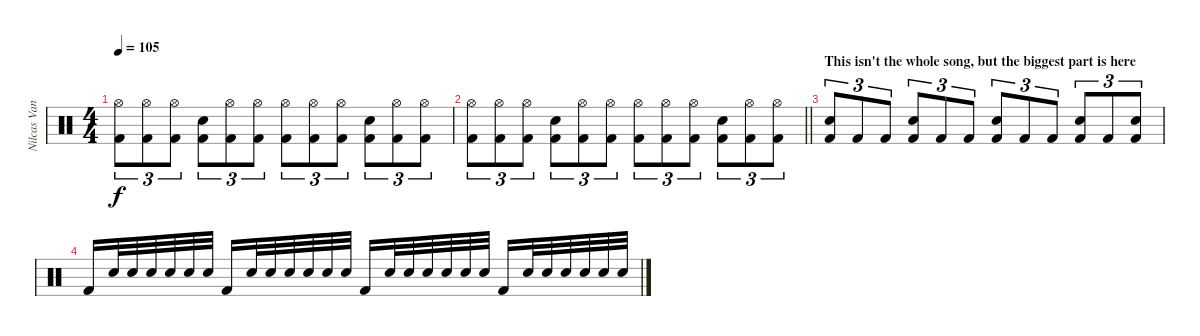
\track ("Nilcas Vant" "Nilcas Van") {instrument percussion}
\staff {score}
\articulation defaults
\ts (4 4)
\tempo 105
\clef neutral
\ks c
("Hi-Hat (open)" "Kick (hit) 2").8{tu (3 2) dy f} ("Hi-Hat (open)" "Kick (hit) 2").8{tu (3 2)} ("Hi-Hat (open)" "Kick (hit) 2").8{tu (3 2)} ("Electric Snare (hit)" "Kick (hit) 2").8{tu (3 2)} ("Hi-Hat (open)" "Kick (hit) 2").8{tu (3 2)} ("Hi-Hat (open)" "Kick (hit) 2").8{tu (3 2)} ("Hi-Hat (open)" "Kick (hit) 2").8{tu (3 2)} ("Hi-Hat (open)" "Kick (hit) 2").8{tu (3 2)} ("Hi-Hat (open)" "Kick (hit) 2").8{tu (3 2)} ("Electric Snare (hit)" "Kick (hit) 2").8{tu (3 2)} ("Hi-Hat (open)" "Kick (hit) 2").8{tu (3 2)} ("Hi-Hat (open)" "Kick (hit) 2").8{tu (3 2)} |
\barLineRight lightlight
("Hi-Hat (open)" "Kick (hit) 2").8{tu (3 2)} ("Hi-Hat (open)" "Kick (hit) 2").8{tu (3 2)} ("Hi-Hat (open)" "Kick (hit) 2").8{tu (3 2)} ("Electric Snare (hit)" "Kick (hit) 2").8{tu (3 2)} ("Hi-Hat (open)" "Kick (hit) 2").8{tu (3 2)} ("Hi-Hat (open)" "Kick (hit) 2").8{tu (3 2)} ("Hi-Hat (open)" "Kick (hit) 2").8{tu (3 2)} ("Hi-Hat (open)" "Kick (hit) 2").8{tu (3 2)} ("Hi-Hat (open)" "Kick (hit) 2").8{tu (3 2)} ("Electric Snare (hit)" "Kick (hit) 2").8{tu (3 2)} ("Hi-Hat (open)" "Kick (hit) 2").8{tu (3 2)} ("Hi-Hat (open)" "Kick (hit) 2").8{tu (3 2)} |
\section ("" "This isn't the whole song, but the biggest part is here")
("Electric Snare (hit)" "Kick (hit) 2").8{tu (3 2)} "Kick (hit) 2".8{tu (3 2)} "Kick (hit) 2".8{tu (3 2)} ("Electric Snare (hit)" "Kick (hit) 2").8{tu (3 2)} "Kick (hit) 2".8{tu (3 2)} "Kick (hit) 2".8{tu (3 2)} ("Electric Snare (hit)" "Kick (hit) 2").8{tu (3 2)} "Kick (hit) 2".8{tu (3 2)} "Kick (hit) 2".8{tu (3 2)} ("Electric Snare (hit)" "Kick (hit) 2").8{tu (3 2)} "Kick (hit) 2".8{tu (3 2)} ("Electric Snare (hit)" "Kick (hit) 2").8{tu (3 2)} |
"Kick (hit) 2".16 "Electric Snare (hit)".32 "Electric Snare (hit)".32 "Electric Snare (hit)".32 "Electric Snare (hit)".32 "Electric Snare (hit)".32 "Electric Snare (hit)".32 "Kick (hit) 2".16 "Electric Snare (hit)".32 "Electric Snare (hit)".32 "Electric Snare (hit)".32 "Electric Snare (hit)".32 "Electric Snare (hit)".32 "Electric Snare (hit)".32 "Kick (hit) 2".16 "Electric Snare (hit)".32 "Electric Snare (hit)".32 "Electric Snare (hit)".32 "Electric Snare (hit)".32 "Electric Snare (hit)".32 "Electric Snare (hit)".32 "Kick (hit) 2".16 "Electric Snare (hit)".32 "Electric Snare (hit)".32 "Electric Snare (hit)".32 "Electric Snare (hit)".32 "Electric Snare (hit)".32 "Electric Snare (hit)".32
